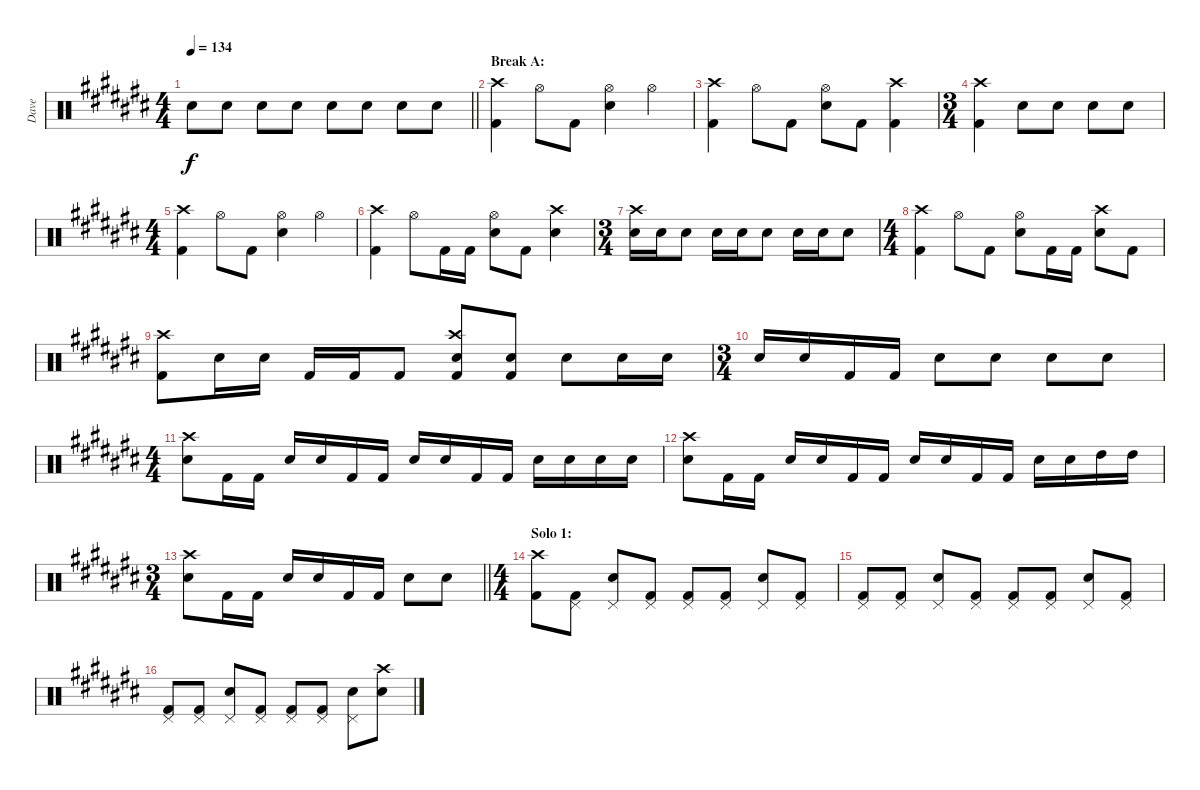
\track ("Dave" "Dave") {instrument percussion}
\staff {score}
\articulation defaults
\ts (4 4)
\tempo 134
\clef neutral
\barLineRight lightlight
\ks c# "Snare (hit) 2".8{dy f} "Snare (hit) 2".8 "Snare (hit) 2".8 "Snare (hit) 2".8 "Snare (hit) 2".8 "Snare (hit) 2".8 "Snare (hit) 2".8 "Snare (hit) 2".8
|
\section ("" "Break A:")
("Crash high (hit)" "Kick (hit) 2").4 "Hi-Hat (open)".8 "Kick (hit) 2".8 ("Hi-Hat (open)" "Snare (hit) 2").4 "Hi-Hat (open)".4 |
("Crash high (hit)" "Kick (hit) 2").4 "Hi-Hat (open)".8 "Kick (hit) 2".8 ("Hi-Hat (open)" "Snare (hit) 2").8 "Kick (hit) 2".8 ("Crash high (hit)" "Kick (hit) 2").4 |
\ts (3 4)
("Crash high (hit)" "Kick (hit) 2").4 "Snare (hit) 2".8 "Snare (hit) 2".8 "Snare (hit) 2".8 "Snare (hit) 2".8 |
\ts (4 4)
("Crash high (hit)" "Kick (hit) 2").4 "Hi-Hat (open)".8 "Kick (hit) 2".8 ("Hi-Hat (open)" "Snare (hit) 2").4 "Hi-Hat (open)".4 |
("Crash high (hit)" "Kick (hit) 2").4 "Hi-Hat (open)".8 "Kick (hit) 2".16 "Kick (hit) 2".16 ("Hi-Hat (open)" "Snare (hit) 2").8 "Kick (hit) 2".8 ("Crash high (hit)" "Snare (hit) 2").4 |
\ts (3 4)
("Crash high (hit)" "Snare (hit) 2").16 "Snare (hit) 2".16 "Snare (hit) 2".8 "Snare (hit) 2".16 "Snare (hit) 2".16 "Snare (hit) 2".8 "Snare (hit) 2".16 "Snare (hit) 2".16 "Snare (hit) 2".8 |
\ts (4 4)
("Crash high (hit)" "Kick (hit) 2").4 "Hi-Hat (open)".8 "Kick (hit) 2".8 ("Hi-Hat (open)" "Snare (hit) 2").8 "Kick (hit) 2".16 "Kick (hit) 2".16 ("Crash high (hit)" "Snare (hit) 2").8 "Kick (hit) 2".8 |
("Crash high (hit)" "Kick (hit) 2").8 "Snare (hit) 2".16 "Snare (hit) 2".16 "Kick (hit) 2".16 "Kick (hit) 2".16 "Kick (hit) 2".8 ("Crash high (hit)" "Snare (hit) 2" "Kick (hit) 2").8 ("Snare (hit) 2" "Kick (hit) 2").8 "Snare (hit) 2".8 "Snare (hit) 2".16 "Snare (hit) 2".16 |
\ts (3 4)
"Snare (hit) 2".16 "Snare (hit) 2".16 "Kick (hit) 2".16 "Kick (hit) 2".16 "Snare (hit) 2".8 "Snare (hit) 2".8 "Snare (hit) 2".8 "Snare (hit) 2".8 |
\ts (4 4)
("Crash high (hit)" "Snare (hit) 2").8 "Kick (hit) 2".16 "Kick (hit) 2".16 "Snare (hit) 2".16 "Snare (hit) 2".16 "Kick (hit) 2".16 "Kick (hit) 2".16 "Snare (hit) 2".16 "Snare (hit) 2".16 "Kick (hit) 2".16 "Kick (hit) 2".16 "Snare (hit) 2".16 "Snare (hit) 2".16 "Snare (hit) 2".16 "Snare (hit) 2".16 |
("Crash high (hit)" "Snare (hit) 2").8 "Kick (hit) 2".16 "Kick (hit) 2".16 "Snare (hit) 2".16 "Snare (hit) 2".16 "Kick (hit) 2".16 "Kick (hit) 2".16 "Snare (hit) 2".16 "Snare (hit) 2".16 "Kick (hit) 2".16 "Kick (hit) 2".16 "Snare (hit) 2".16 "Snare (hit) 2".16 "High Tom (hit)".16 "High Tom (hit)".16 |
\ts (3 4)
\barLineRight lightlight
("Crash high (hit)" "Snare (hit) 2").8 "Kick (hit) 2".16 "Kick (hit) 2".16 "Snare (hit) 2".16 "Snare (hit) 2".16 "Kick (hit) 2".16 "Kick (hit) 2".16 "Snare (hit) 2".8 "Snare (hit) 2".8 |
\ts (4 4)
\section ("" "Solo 1:")
("Crash high (hit)" "Kick (hit) 2").8 ("Pedal Hi-Hat (hit)" "Kick (hit) 2").8 ("Pedal Hi-Hat (hit)" "Snare (hit) 2").8 ("Pedal Hi-Hat (hit)" "Kick (hit) 2").8 ("Pedal Hi-Hat (hit)" "Kick (hit) 2").8 ("Pedal Hi-Hat (hit)" "Kick (hit) 2").8 ("Pedal Hi-Hat (hit)" "Snare (hit) 2").8 ("Pedal Hi-Hat (hit)" "Kick (hit) 2").8 |
("Pedal Hi-Hat (hit)" "Kick (hit) 2").8 ("Pedal Hi-Hat (hit)" "Kick (hit) 2").8 ("Pedal Hi-Hat (hit)" "Snare (hit) 2").8 ("Pedal Hi-Hat (hit)" "Kick (hit) 2").8 ("Pedal Hi-Hat (hit)" "Kick (hit) 2").8 ("Pedal Hi-Hat (hit)" "Kick (hit) 2").8 ("Pedal Hi-Hat (hit)" "Snare (hit) 2").8 ("Pedal Hi-Hat (hit)" "Kick (hit) 2").8 |
("Pedal Hi-Hat (hit)" "Kick (hit) 2").8 ("Pedal Hi-Hat (hit)" "Kick (hit) 2").8 ("Pedal Hi-Hat (hit)" "Snare (hit) 2").8 ("Pedal Hi-Hat (hit)" "Kick (hit) 2").8 ("Pedal Hi-Hat (hit)" "Kick (hit) 2").8 ("Pedal Hi-Hat (hit)" "Kick (hit) 2").8 ("Pedal Hi-Hat (hit)" "Snare (hit) 2").8 ("Crash high (hit)" "Snare (hit) 2").8
